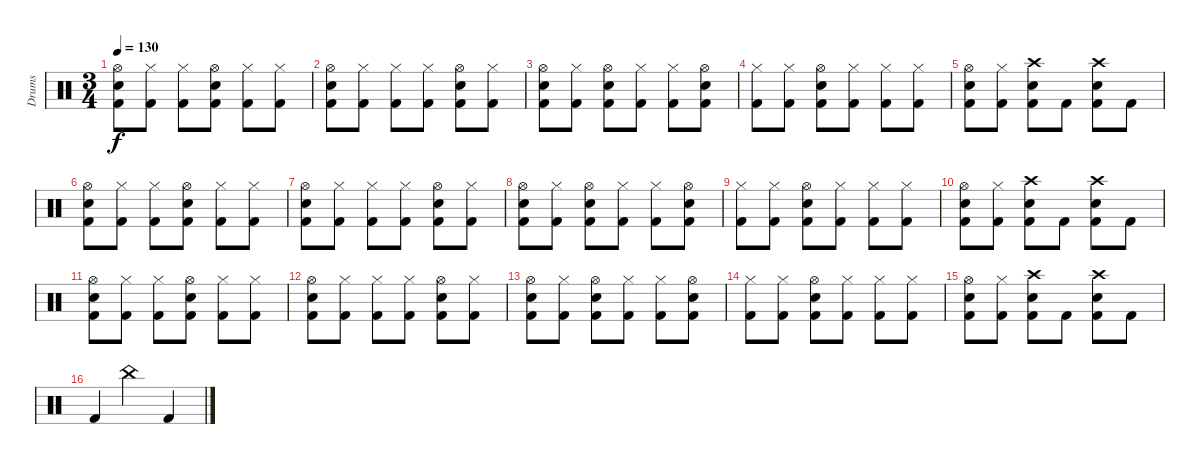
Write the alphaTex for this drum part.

\track ("Drums" "Drums") {instrument percussion}
\staff {score}
\articulation defaults
\ts (3 4)
\tempo 130
\clef neutral
\ks c
("Hi-Hat (open)" "Snare (hit) 2" "Kick (hit) 2").8{dy f} ("Hi-Hat (closed)" "Kick (hit) 2").8 ("Hi-Hat (closed)" "Kick (hit) 2").8 ("Hi-Hat (open)" "Snare (hit) 2" "Kick (hit) 2").8 ("Hi-Hat (closed)" "Kick (hit) 2").8 ("Hi-Hat (closed)" "Kick (hit) 2").8 |
("Hi-Hat (open)" "Snare (hit) 2" "Kick (hit) 2").8 ("Hi-Hat (closed)" "Kick (hit) 2").8 ("Hi-Hat (closed)" "Kick (hit) 2").8 ("Hi-Hat (closed)" "Kick (hit) 2").8 ("Hi-Hat (open)" "Snare (hit) 2" "Kick (hit) 2").8 ("Hi-Hat (closed)" "Kick (hit) 2").8 |
("Hi-Hat (open)" "Snare (hit) 2" "Kick (hit) 2").8 ("Hi-Hat (closed)" "Kick (hit) 2").8 ("Hi-Hat (open)" "Snare (hit) 2" "Kick (hit) 2").8 ("Hi-Hat (closed)" "Kick (hit) 2").8 ("Hi-Hat (closed)" "Kick (hit) 2").8 ("Hi-Hat (open)" "Snare (hit) 2" "Kick (hit) 2").8 |
("Hi-Hat (closed)" "Kick (hit) 2").8 ("Hi-Hat (closed)" "Kick (hit) 2").8 ("Hi-Hat (open)" "Snare (hit) 2" "Kick (hit) 2").8 ("Hi-Hat (closed)" "Kick (hit) 2").8 ("Hi-Hat (closed)" "Kick (hit) 2").8 ("Hi-Hat (closed)" "Kick (hit) 2").8 |
("Hi-Hat (open)" "Snare (hit) 2" "Kick (hit) 2").8 ("Hi-Hat (closed)" "Kick (hit) 2").8 ("Crash high (hit)" "Snare (hit) 2" "Kick (hit) 2").8 "Kick (hit) 2".8 ("Crash high (hit)" "Snare (hit) 2" "Kick (hit) 2").8 "Kick (hit) 2".8 |
("Hi-Hat (open)" "Snare (hit) 2" "Kick (hit) 2").8 ("Hi-Hat (closed)" "Kick (hit) 2").8 ("Hi-Hat (closed)" "Kick (hit) 2").8 ("Hi-Hat (open)" "Snare (hit) 2" "Kick (hit) 2").8 ("Hi-Hat (closed)" "Kick (hit) 2").8 ("Hi-Hat (closed)" "Kick (hit) 2").8 |
("Hi-Hat (open)" "Snare (hit) 2" "Kick (hit) 2").8 ("Hi-Hat (closed)" "Kick (hit) 2").8 ("Hi-Hat (closed)" "Kick (hit) 2").8 ("Hi-Hat (closed)" "Kick (hit) 2").8 ("Hi-Hat (open)" "Snare (hit) 2" "Kick (hit) 2").8 ("Hi-Hat (closed)" "Kick (hit) 2").8 |
("Hi-Hat (open)" "Snare (hit) 2" "Kick (hit) 2").8 ("Hi-Hat (closed)" "Kick (hit) 2").8 ("Hi-Hat (open)" "Snare (hit) 2" "Kick (hit) 2").8 ("Hi-Hat (closed)" "Kick (hit) 2").8 ("Hi-Hat (closed)" "Kick (hit) 2").8 ("Hi-Hat (open)" "Snare (hit) 2" "Kick (hit) 2").8 |
("Hi-Hat (closed)" "Kick (hit) 2").8 ("Hi-Hat (closed)" "Kick (hit) 2").8 ("Hi-Hat (open)" "Snare (hit) 2" "Kick (hit) 2").8 ("Hi-Hat (closed)" "Kick (hit) 2").8 ("Hi-Hat (closed)" "Kick (hit) 2").8 ("Hi-Hat (closed)" "Kick (hit) 2").8 |
("Hi-Hat (open)" "Snare (hit) 2" "Kick (hit) 2").8 ("Hi-Hat (closed)" "Kick (hit) 2").8 ("Crash high (hit)" "Snare (hit) 2" "Kick (hit) 2").8 "Kick (hit) 2".8 ("Crash high (hit)" "Snare (hit) 2" "Kick (hit) 2").8 "Kick (hit) 2".8 |
("Hi-Hat (open)" "Snare (hit) 2" "Kick (hit) 2").8 ("Hi-Hat (closed)" "Kick (hit) 2").8 ("Hi-Hat (closed)" "Kick (hit) 2").8 ("Hi-Hat (open)" "Snare (hit) 2" "Kick (hit) 2").8 ("Hi-Hat (closed)" "Kick (hit) 2").8 ("Hi-Hat (closed)" "Kick (hit) 2").8 |
("Hi-Hat (open)" "Snare (hit) 2" "Kick (hit) 2").8 ("Hi-Hat (closed)" "Kick (hit) 2").8 ("Hi-Hat (closed)" "Kick (hit) 2").8 ("Hi-Hat (closed)" "Kick (hit) 2").8 ("Hi-Hat (open)" "Snare (hit) 2" "Kick (hit) 2").8 ("Hi-Hat (closed)" "Kick (hit) 2").8 |
("Hi-Hat (open)" "Snare (hit) 2" "Kick (hit) 2").8 ("Hi-Hat (closed)" "Kick (hit) 2").8 ("Hi-Hat (open)" "Snare (hit) 2" "Kick (hit) 2").8 ("Hi-Hat (closed)" "Kick (hit) 2").8 ("Hi-Hat (closed)" "Kick (hit) 2").8 ("Hi-Hat (open)" "Snare (hit) 2" "Kick (hit) 2").8 |
("Hi-Hat (closed)" "Kick (hit) 2").8 ("Hi-Hat (closed)" "Kick (hit) 2").8 ("Hi-Hat (open)" "Snare (hit) 2" "Kick (hit) 2").8 ("Hi-Hat (closed)" "Kick (hit) 2").8 ("Hi-Hat (closed)" "Kick (hit) 2").8 ("Hi-Hat (closed)" "Kick (hit) 2").8 |
("Hi-Hat (open)" "Snare (hit) 2" "Kick (hit) 2").8 ("Hi-Hat (closed)" "Kick (hit) 2").8 ("Crash high (hit)" "Snare (hit) 2" "Kick (hit) 2").8 "Kick (hit) 2".8 ("Crash high (hit)" "Snare (hit) 2" "Kick (hit) 2").8 "Kick (hit) 2".8 |
"Kick (hit) 2".4 "China (hit)".4 "Kick (hit) 2".4
